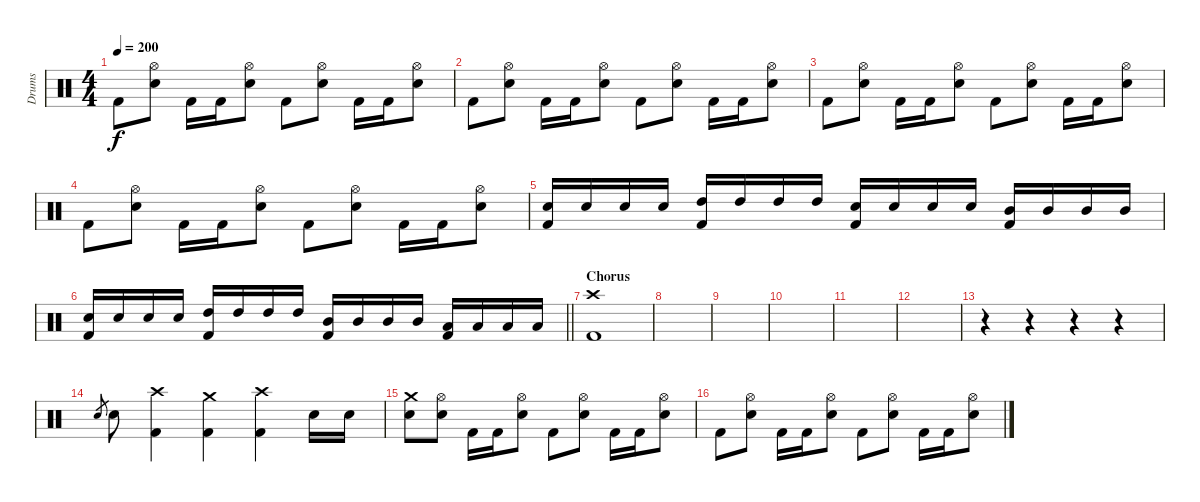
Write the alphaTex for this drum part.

\track ("Drums" "Drums") {instrument percussion}
\staff {score}
\articulation defaults
\ts (4 4)
\tempo 200
\clef neutral
\ks c "Kick (hit) 2".8{dy f}
("Hi-Hat (open)" "Electric Snare (hit)").8 "Kick (hit) 2".16 "Kick (hit) 2".16 ("Hi-Hat (open)" "Electric Snare (hit)").8 "Kick (hit) 2".8 ("Hi-Hat (open)" "Electric Snare (hit)").8 "Kick (hit) 2".16 "Kick (hit) 2".16 ("Hi-Hat (open)" "Electric Snare (hit)").8 |
"Kick (hit) 2".8 ("Hi-Hat (open)" "Electric Snare (hit)").8 "Kick (hit) 2".16 "Kick (hit) 2".16 ("Hi-Hat (open)" "Electric Snare (hit)").8 "Kick (hit) 2".8 ("Hi-Hat (open)" "Electric Snare (hit)").8 "Kick (hit) 2".16 "Kick (hit) 2".16 ("Hi-Hat (open)" "Electric Snare (hit)").8 |
"Kick (hit) 2".8 ("Hi-Hat (open)" "Electric Snare (hit)").8 "Kick (hit) 2".16 "Kick (hit) 2".16 ("Hi-Hat (open)" "Electric Snare (hit)").8 "Kick (hit) 2".8 ("Hi-Hat (open)" "Electric Snare (hit)").8 "Kick (hit) 2".16 "Kick (hit) 2".16 ("Hi-Hat (open)" "Electric Snare (hit)").8 |
"Kick (hit) 2".8 ("Hi-Hat (open)" "Electric Snare (hit)").8 "Kick (hit) 2".16 "Kick (hit) 2".16 ("Hi-Hat (open)" "Electric Snare (hit)").8 "Kick (hit) 2".8 ("Hi-Hat (open)" "Electric Snare (hit)").8 "Kick (hit) 2".16 "Kick (hit) 2".16 ("Hi-Hat (open)" "Electric Snare (hit)").8 |
("Electric Snare (hit)" "Kick (hit) 2").16 "Electric Snare (hit)".16 "Electric Snare (hit)".16 "Electric Snare (hit)".16 ("High Tom (hit)" "Kick (hit) 2").16 "High Tom (hit)".16 "High Tom (hit)".16 "High Tom (hit)".16 ("Electric Snare (hit)" "Kick (hit) 2").16 "Electric Snare (hit)".16 "Electric Snare (hit)".16 "Electric Snare (hit)".16 ("Mid Tom (hit)" "Kick (hit) 2").16 "Mid Tom (hit)".16 "Mid Tom (hit)".16 "Mid Tom (hit)".16 |
\barLineRight lightlight
("Electric Snare (hit)" "Kick (hit) 2").16 "Electric Snare (hit)".16 "Electric Snare (hit)".16 "Electric Snare (hit)".16 ("High Tom (hit)" "Kick (hit) 2").16 "High Tom (hit)".16 "High Tom (hit)".16 "High Tom (hit)".16 ("Mid Tom (hit)" "Kick (hit) 2").16 "Mid Tom (hit)".16 "Mid Tom (hit)".16 "Mid Tom (hit)".16 ("Low Floor Tom (hit)" "Kick (hit) 2").16 "Low Floor Tom (hit)".16 "Low Floor Tom (hit)".16 "Low Floor Tom (hit)".16 |
\section ("" "Chorus")
("Crash high (hit)" "Kick (hit) 2").1 |
|
|
|
|
|
r.4 r.4 r.4 r.4 |
"Electric Snare (hit)".8{gr} "Electric Snare (hit)".8 ("Crash high (hit)" "Kick (hit) 2").4 ("Crash medium (hit)" "Kick (hit) 2").4 ("Crash high (hit)" "Kick (hit) 2").4 "Electric Snare (hit)".16 "Electric Snare (hit)".16 |
("Crash medium (hit)" "Snare (hit)").8 ("Hi-Hat (open)" "Electric Snare (hit)").8 "Kick (hit) 2".16 "Kick (hit) 2".16 ("Hi-Hat (open)" "Electric Snare (hit)").8 "Kick (hit) 2".8 ("Hi-Hat (open)" "Electric Snare (hit)").8 "Kick (hit) 2".16 "Kick (hit) 2".16 ("Hi-Hat (open)" "Electric Snare (hit)").8 |
"Kick (hit) 2".8 ("Hi-Hat (open)" "Electric Snare (hit)").8 "Kick (hit) 2".16 "Kick (hit) 2".16 ("Hi-Hat (open)" "Electric Snare (hit)").8 "Kick (hit) 2".8 ("Hi-Hat (open)" "Electric Snare (hit)").8 "Kick (hit) 2".16 "Kick (hit) 2".16 ("Hi-Hat (open)" "Electric Snare (hit)").8
